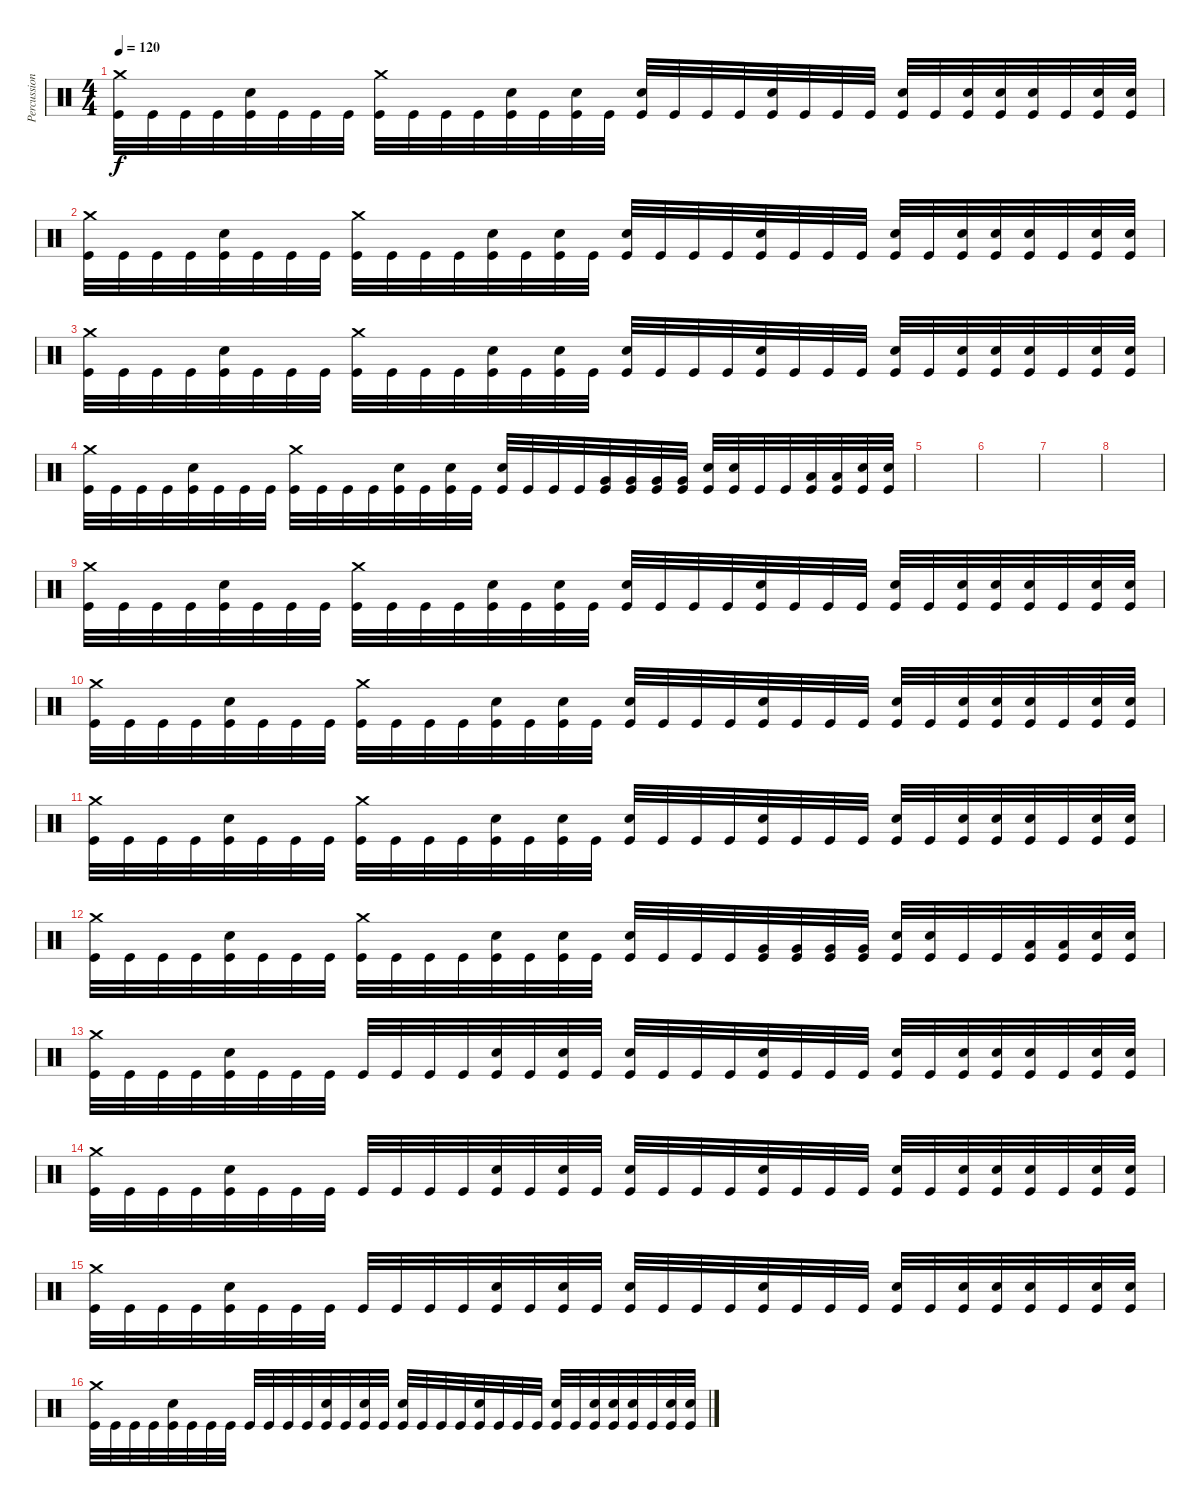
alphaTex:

\track ("Percussion" "Percussion") {instrument percussion}
\staff {score}
\articulation defaults
\ts (4 4)
\tempo 120
\clef neutral
\ks c
("Crash medium (hit)" "Kick (hit)").32{dy f} "Kick (hit)".32 "Kick (hit)".32 "Kick (hit)".32 ("Electric Snare (hit)" "Kick (hit)").32 "Kick (hit)".32 "Kick (hit)".32 "Kick (hit)".32 ("Crash medium (hit)" "Kick (hit)").32 "Kick (hit)".32 "Kick (hit)".32 "Kick (hit)".32 ("Electric Snare (hit)" "Kick (hit)").32 "Kick (hit)".32 ("Electric Snare (hit)" "Kick (hit)").32 "Kick (hit)".32 ("Electric Snare (hit)" "Kick (hit)").32 "Kick (hit)".32 "Kick (hit)".32 "Kick (hit)".32 ("Electric Snare (hit)" "Kick (hit)").32 "Kick (hit)".32 "Kick (hit)".32 "Kick (hit)".32 ("Electric Snare (hit)" "Kick (hit)").32 "Kick (hit)".32 ("Electric Snare (hit)" "Kick (hit)").32 ("Electric Snare (hit)" "Kick (hit)").32 ("Electric Snare (hit)" "Kick (hit)").32 "Kick (hit)".32 ("Electric Snare (hit)" "Kick (hit)").32 ("Electric Snare (hit)" "Kick (hit)").32 |
("Crash medium (hit)" "Kick (hit)").32 "Kick (hit)".32 "Kick (hit)".32 "Kick (hit)".32 ("Electric Snare (hit)" "Kick (hit)").32 "Kick (hit)".32 "Kick (hit)".32 "Kick (hit)".32 ("Crash medium (hit)" "Kick (hit)").32 "Kick (hit)".32 "Kick (hit)".32 "Kick (hit)".32 ("Electric Snare (hit)" "Kick (hit)").32 "Kick (hit)".32 ("Electric Snare (hit)" "Kick (hit)").32 "Kick (hit)".32 ("Electric Snare (hit)" "Kick (hit)").32 "Kick (hit)".32 "Kick (hit)".32 "Kick (hit)".32 ("Electric Snare (hit)" "Kick (hit)").32 "Kick (hit)".32 "Kick (hit)".32 "Kick (hit)".32 ("Electric Snare (hit)" "Kick (hit)").32 "Kick (hit)".32 ("Electric Snare (hit)" "Kick (hit)").32 ("Electric Snare (hit)" "Kick (hit)").32 ("Electric Snare (hit)" "Kick (hit)").32 "Kick (hit)".32 ("Electric Snare (hit)" "Kick (hit)").32 ("Electric Snare (hit)" "Kick (hit)").32 |
("Crash medium (hit)" "Kick (hit)").32 "Kick (hit)".32 "Kick (hit)".32 "Kick (hit)".32 ("Electric Snare (hit)" "Kick (hit)").32 "Kick (hit)".32 "Kick (hit)".32 "Kick (hit)".32 ("Crash medium (hit)" "Kick (hit)").32 "Kick (hit)".32 "Kick (hit)".32 "Kick (hit)".32 ("Electric Snare (hit)" "Kick (hit)").32 "Kick (hit)".32 ("Electric Snare (hit)" "Kick (hit)").32 "Kick (hit)".32 ("Electric Snare (hit)" "Kick (hit)").32 "Kick (hit)".32 "Kick (hit)".32 "Kick (hit)".32 ("Electric Snare (hit)" "Kick (hit)").32 "Kick (hit)".32 "Kick (hit)".32 "Kick (hit)".32 ("Electric Snare (hit)" "Kick (hit)").32 "Kick (hit)".32 ("Electric Snare (hit)" "Kick (hit)").32 ("Electric Snare (hit)" "Kick (hit)").32 ("Electric Snare (hit)" "Kick (hit)").32 "Kick (hit)".32 ("Electric Snare (hit)" "Kick (hit)").32 ("Electric Snare (hit)" "Kick (hit)").32 |
("Crash medium (hit)" "Kick (hit)").32 "Kick (hit)".32 "Kick (hit)".32 "Kick (hit)".32 ("Electric Snare (hit)" "Kick (hit)").32 "Kick (hit)".32 "Kick (hit)".32 "Kick (hit)".32 ("Crash medium (hit)" "Kick (hit)").32 "Kick (hit)".32 "Kick (hit)".32 "Kick (hit)".32 ("Electric Snare (hit)" "Kick (hit)").32 "Kick (hit)".32 ("Electric Snare (hit)" "Kick (hit)").32 "Kick (hit)".32 ("Electric Snare (hit)" "Kick (hit)").32 "Kick (hit)".32 "Kick (hit)".32 "Kick (hit)".32 ("Very Low Tom (hit)" "Kick (hit)").32 ("Very Low Tom (hit)" "Kick (hit)").32 ("Very Low Tom (hit)" "Kick (hit)").32 ("Very Low Tom (hit)" "Kick (hit)").32 ("Snare (hit) 2" "Kick (hit)").32 ("Snare (hit) 2" "Kick (hit)").32 "Kick (hit)".32 "Kick (hit)".32 ("Low Floor Tom (hit)" "Kick (hit)").32 ("Low Floor Tom (hit)" "Kick (hit)").32 ("Electric Snare (hit)" "Kick (hit)").32 ("Electric Snare (hit)" "Kick (hit)").32 |
|
|
|
|
("Crash medium (hit)" "Kick (hit)").32 "Kick (hit)".32 "Kick (hit)".32 "Kick (hit)".32 ("Electric Snare (hit)" "Kick (hit)").32 "Kick (hit)".32 "Kick (hit)".32 "Kick (hit)".32 ("Crash medium (hit)" "Kick (hit)").32 "Kick (hit)".32 "Kick (hit)".32 "Kick (hit)".32 ("Electric Snare (hit)" "Kick (hit)").32 "Kick (hit)".32 ("Electric Snare (hit)" "Kick (hit)").32 "Kick (hit)".32 ("Electric Snare (hit)" "Kick (hit)").32 "Kick (hit)".32 "Kick (hit)".32 "Kick (hit)".32 ("Electric Snare (hit)" "Kick (hit)").32 "Kick (hit)".32 "Kick (hit)".32 "Kick (hit)".32 ("Electric Snare (hit)" "Kick (hit)").32 "Kick (hit)".32 ("Electric Snare (hit)" "Kick (hit)").32 ("Electric Snare (hit)" "Kick (hit)").32 ("Electric Snare (hit)" "Kick (hit)").32 "Kick (hit)".32 ("Electric Snare (hit)" "Kick (hit)").32 ("Electric Snare (hit)" "Kick (hit)").32 |
("Crash medium (hit)" "Kick (hit)").32 "Kick (hit)".32 "Kick (hit)".32 "Kick (hit)".32 ("Electric Snare (hit)" "Kick (hit)").32 "Kick (hit)".32 "Kick (hit)".32 "Kick (hit)".32 ("Crash medium (hit)" "Kick (hit)").32 "Kick (hit)".32 "Kick (hit)".32 "Kick (hit)".32 ("Electric Snare (hit)" "Kick (hit)").32 "Kick (hit)".32 ("Electric Snare (hit)" "Kick (hit)").32 "Kick (hit)".32 ("Electric Snare (hit)" "Kick (hit)").32 "Kick (hit)".32 "Kick (hit)".32 "Kick (hit)".32 ("Electric Snare (hit)" "Kick (hit)").32 "Kick (hit)".32 "Kick (hit)".32 "Kick (hit)".32 ("Electric Snare (hit)" "Kick (hit)").32 "Kick (hit)".32 ("Electric Snare (hit)" "Kick (hit)").32 ("Electric Snare (hit)" "Kick (hit)").32 ("Electric Snare (hit)" "Kick (hit)").32 "Kick (hit)".32 ("Electric Snare (hit)" "Kick (hit)").32 ("Electric Snare (hit)" "Kick (hit)").32 |
("Crash medium (hit)" "Kick (hit)").32 "Kick (hit)".32 "Kick (hit)".32 "Kick (hit)".32 ("Electric Snare (hit)" "Kick (hit)").32 "Kick (hit)".32 "Kick (hit)".32 "Kick (hit)".32 ("Crash medium (hit)" "Kick (hit)").32 "Kick (hit)".32 "Kick (hit)".32 "Kick (hit)".32 ("Electric Snare (hit)" "Kick (hit)").32 "Kick (hit)".32 ("Electric Snare (hit)" "Kick (hit)").32 "Kick (hit)".32 ("Electric Snare (hit)" "Kick (hit)").32 "Kick (hit)".32 "Kick (hit)".32 "Kick (hit)".32 ("Electric Snare (hit)" "Kick (hit)").32 "Kick (hit)".32 "Kick (hit)".32 "Kick (hit)".32 ("Electric Snare (hit)" "Kick (hit)").32 "Kick (hit)".32 ("Electric Snare (hit)" "Kick (hit)").32 ("Electric Snare (hit)" "Kick (hit)").32 ("Electric Snare (hit)" "Kick (hit)").32 "Kick (hit)".32 ("Electric Snare (hit)" "Kick (hit)").32 ("Electric Snare (hit)" "Kick (hit)").32 |
("Crash medium (hit)" "Kick (hit)").32 "Kick (hit)".32 "Kick (hit)".32 "Kick (hit)".32 ("Electric Snare (hit)" "Kick (hit)").32 "Kick (hit)".32 "Kick (hit)".32 "Kick (hit)".32 ("Crash medium (hit)" "Kick (hit)").32 "Kick (hit)".32 "Kick (hit)".32 "Kick (hit)".32 ("Electric Snare (hit)" "Kick (hit)").32 "Kick (hit)".32 ("Electric Snare (hit)" "Kick (hit)").32 "Kick (hit)".32 ("Electric Snare (hit)" "Kick (hit)").32 "Kick (hit)".32 "Kick (hit)".32 "Kick (hit)".32 ("Very Low Tom (hit)" "Kick (hit)").32 ("Very Low Tom (hit)" "Kick (hit)").32 ("Very Low Tom (hit)" "Kick (hit)").32 ("Very Low Tom (hit)" "Kick (hit)").32 ("Snare (hit) 2" "Kick (hit)").32 ("Snare (hit) 2" "Kick (hit)").32 "Kick (hit)".32 "Kick (hit)".32 ("Low Floor Tom (hit)" "Kick (hit)").32 ("Low Floor Tom (hit)" "Kick (hit)").32 ("Electric Snare (hit)" "Kick (hit)").32 ("Electric Snare (hit)" "Kick (hit)").32 |
("Crash medium (hit)" "Kick (hit)").32 "Kick (hit)".32 "Kick (hit)".32 "Kick (hit)".32 ("Electric Snare (hit)" "Kick (hit)").32 "Kick (hit)".32 "Kick (hit)".32 "Kick (hit)".32 "Kick (hit)".32 "Kick (hit)".32 "Kick (hit)".32 "Kick (hit)".32 ("Electric Snare (hit)" "Kick (hit)").32 "Kick (hit)".32 ("Electric Snare (hit)" "Kick (hit)").32 "Kick (hit)".32 ("Electric Snare (hit)" "Kick (hit)").32 "Kick (hit)".32 "Kick (hit)".32 "Kick (hit)".32 ("Electric Snare (hit)" "Kick (hit)").32 "Kick (hit)".32 "Kick (hit)".32 "Kick (hit)".32 ("Electric Snare (hit)" "Kick (hit)").32 "Kick (hit)".32 ("Electric Snare (hit)" "Kick (hit)").32 ("Electric Snare (hit)" "Kick (hit)").32 ("Electric Snare (hit)" "Kick (hit)").32 "Kick (hit)".32 ("Electric Snare (hit)" "Kick (hit)").32 ("Electric Snare (hit)" "Kick (hit)").32 |
("Crash medium (hit)" "Kick (hit)").32 "Kick (hit)".32 "Kick (hit)".32 "Kick (hit)".32 ("Electric Snare (hit)" "Kick (hit)").32 "Kick (hit)".32 "Kick (hit)".32 "Kick (hit)".32 "Kick (hit)".32 "Kick (hit)".32 "Kick (hit)".32 "Kick (hit)".32 ("Electric Snare (hit)" "Kick (hit)").32 "Kick (hit)".32 ("Electric Snare (hit)" "Kick (hit)").32 "Kick (hit)".32 ("Electric Snare (hit)" "Kick (hit)").32 "Kick (hit)".32 "Kick (hit)".32 "Kick (hit)".32 ("Electric Snare (hit)" "Kick (hit)").32 "Kick (hit)".32 "Kick (hit)".32 "Kick (hit)".32 ("Electric Snare (hit)" "Kick (hit)").32 "Kick (hit)".32 ("Electric Snare (hit)" "Kick (hit)").32 ("Electric Snare (hit)" "Kick (hit)").32 ("Electric Snare (hit)" "Kick (hit)").32 "Kick (hit)".32 ("Electric Snare (hit)" "Kick (hit)").32 ("Electric Snare (hit)" "Kick (hit)").32 |
("Crash medium (hit)" "Kick (hit)").32 "Kick (hit)".32 "Kick (hit)".32 "Kick (hit)".32 ("Electric Snare (hit)" "Kick (hit)").32 "Kick (hit)".32 "Kick (hit)".32 "Kick (hit)".32 "Kick (hit)".32 "Kick (hit)".32 "Kick (hit)".32 "Kick (hit)".32 ("Electric Snare (hit)" "Kick (hit)").32 "Kick (hit)".32 ("Electric Snare (hit)" "Kick (hit)").32 "Kick (hit)".32 ("Electric Snare (hit)" "Kick (hit)").32 "Kick (hit)".32 "Kick (hit)".32 "Kick (hit)".32 ("Electric Snare (hit)" "Kick (hit)").32 "Kick (hit)".32 "Kick (hit)".32 "Kick (hit)".32 ("Electric Snare (hit)" "Kick (hit)").32 "Kick (hit)".32 ("Electric Snare (hit)" "Kick (hit)").32 ("Electric Snare (hit)" "Kick (hit)").32 ("Electric Snare (hit)" "Kick (hit)").32 "Kick (hit)".32 ("Electric Snare (hit)" "Kick (hit)").32 ("Electric Snare (hit)" "Kick (hit)").32 |
("Crash medium (hit)" "Kick (hit)").32 "Kick (hit)".32 "Kick (hit)".32 "Kick (hit)".32 ("Electric Snare (hit)" "Kick (hit)").32 "Kick (hit)".32 "Kick (hit)".32 "Kick (hit)".32 "Kick (hit)".32 "Kick (hit)".32 "Kick (hit)".32 "Kick (hit)".32 ("Electric Snare (hit)" "Kick (hit)").32 "Kick (hit)".32 ("Electric Snare (hit)" "Kick (hit)").32 "Kick (hit)".32 ("Electric Snare (hit)" "Kick (hit)").32 "Kick (hit)".32 "Kick (hit)".32 "Kick (hit)".32 ("Electric Snare (hit)" "Kick (hit)").32 "Kick (hit)".32 "Kick (hit)".32 "Kick (hit)".32 ("Electric Snare (hit)" "Kick (hit)").32 "Kick (hit)".32 ("Electric Snare (hit)" "Kick (hit)").32 ("Electric Snare (hit)" "Kick (hit)").32 ("Electric Snare (hit)" "Kick (hit)").32 "Kick (hit)".32 ("Electric Snare (hit)" "Kick (hit)").32 ("Electric Snare (hit)" "Kick (hit)").32
